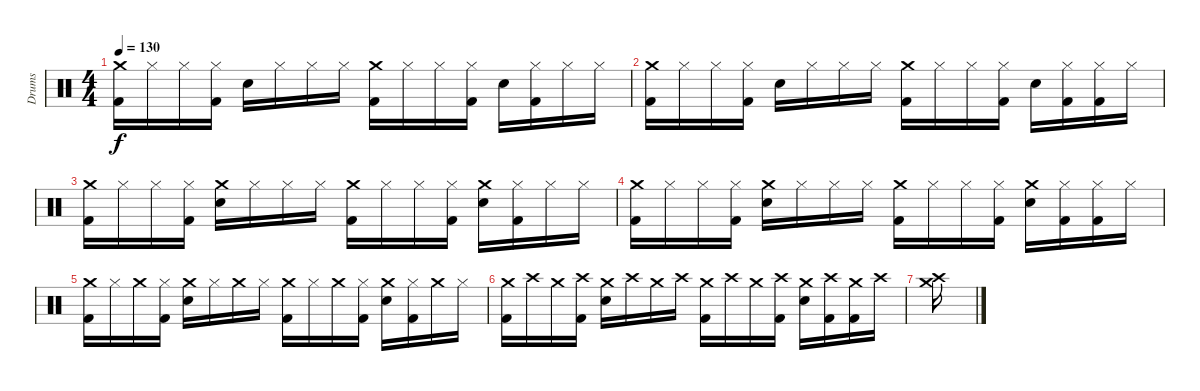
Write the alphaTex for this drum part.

\track ("Drums" "Drums") {instrument percussion}
\staff {score}
\articulation defaults
\ts (4 4)
\tempo 130
\clef neutral
\ks c
("Crash medium (hit)" "Kick (hit) 2").16{dy f} "Hi-Hat (closed)".16 "Hi-Hat (closed)".16 ("Hi-Hat (closed)" "Kick (hit) 2").16 "Snare (hit) 2".16 "Hi-Hat (closed)".16 "Hi-Hat (closed)".16 "Hi-Hat (closed)".16 ("Crash medium (hit)" "Kick (hit) 2").16 "Hi-Hat (closed)".16 "Hi-Hat (closed)".16 ("Hi-Hat (closed)" "Kick (hit) 2").16 "Snare (hit) 2".16 ("Hi-Hat (closed)" "Kick (hit) 2").16 "Hi-Hat (closed)".16 "Hi-Hat (closed)".16 |
("Crash medium (hit)" "Kick (hit) 2").16 "Hi-Hat (closed)".16 "Hi-Hat (closed)".16 ("Hi-Hat (closed)" "Kick (hit) 2").16 "Snare (hit) 2".16 "Hi-Hat (closed)".16 "Hi-Hat (closed)".16 "Hi-Hat (closed)".16 ("Crash medium (hit)" "Kick (hit) 2").16 "Hi-Hat (closed)".16 "Hi-Hat (closed)".16 ("Hi-Hat (closed)" "Kick (hit) 2").16 "Snare (hit) 2".16 ("Hi-Hat (closed)" "Kick (hit) 2").16 ("Hi-Hat (closed)" "Kick (hit) 2").16 "Hi-Hat (closed)".16 |
("Crash medium (hit)" "Kick (hit) 2").16 "Hi-Hat (closed)".16 "Hi-Hat (closed)".16 ("Hi-Hat (closed)" "Kick (hit) 2").16 ("Crash medium (hit)" "Snare (hit) 2").16 "Hi-Hat (closed)".16 "Hi-Hat (closed)".16 "Hi-Hat (closed)".16 ("Crash medium (hit)" "Kick (hit) 2").16 "Hi-Hat (closed)".16 "Hi-Hat (closed)".16 ("Hi-Hat (closed)" "Kick (hit) 2").16 ("Crash medium (hit)" "Snare (hit) 2").16 ("Hi-Hat (closed)" "Kick (hit) 2").16 "Hi-Hat (closed)".16 "Hi-Hat (closed)".16 |
("Crash medium (hit)" "Kick (hit) 2").16 "Hi-Hat (closed)".16 "Hi-Hat (closed)".16 ("Hi-Hat (closed)" "Kick (hit) 2").16 ("Crash medium (hit)" "Snare (hit) 2").16 "Hi-Hat (closed)".16 "Hi-Hat (closed)".16 "Hi-Hat (closed)".16 ("Crash medium (hit)" "Kick (hit) 2").16 "Hi-Hat (closed)".16 "Hi-Hat (closed)".16 ("Hi-Hat (closed)" "Kick (hit) 2").16 ("Crash medium (hit)" "Snare (hit) 2").16 ("Hi-Hat (closed)" "Kick (hit) 2").16 ("Hi-Hat (closed)" "Kick (hit) 2").16 "Hi-Hat (closed)".16 |
("Crash medium (hit)" "Kick (hit) 2").16 "Hi-Hat (closed)".16 "Crash medium (hit)".16 ("Hi-Hat (closed)" "Kick (hit) 2").16 ("Crash medium (hit)" "Snare (hit) 2").16 "Hi-Hat (closed)".16 "Crash medium (hit)".16 "Hi-Hat (closed)".16 ("Crash medium (hit)" "Kick (hit) 2").16 "Hi-Hat (closed)".16 "Crash medium (hit)".16 ("Hi-Hat (closed)" "Kick (hit) 2").16 ("Crash medium (hit)" "Snare (hit) 2").16 ("Hi-Hat (closed)" "Kick (hit) 2").16 "Crash medium (hit)".16 "Hi-Hat (closed)".16 |
("Crash medium (hit)" "Kick (hit) 2").16 "Crash high (hit)".16 "Crash medium (hit)".16 ("Crash high (hit)" "Kick (hit) 2").16 ("Crash medium (hit)" "Snare (hit) 2").16 "Crash high (hit)".16 "Crash medium (hit)".16 "Crash high (hit)".16 ("Crash medium (hit)" "Kick (hit) 2").16 "Crash high (hit)".16 "Crash medium (hit)".16 ("Crash high (hit)" "Kick (hit) 2").16 ("Crash medium (hit)" "Snare (hit) 2").16 ("Crash high (hit)" "Kick (hit) 2").16 ("Crash medium (hit)" "Kick (hit) 2").16 "Crash high (hit)".16 |
("Crash medium (hit)" "Crash high (hit)").16
